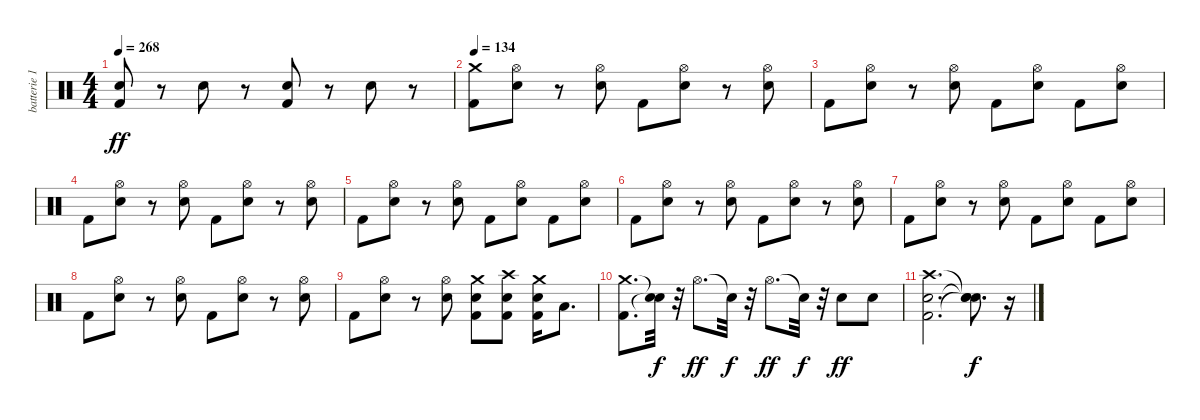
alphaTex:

\track ("batterie 1" "batterie 1") {instrument percussion}
\staff {score}
\articulation defaults
\ts (4 4)
\tempo 268
\clef neutral
\ks c
("Kick (hit) 2" "Electric Snare (hit)").8{dy ff volume 12} r.8 "Electric Snare (hit)".8{volume 14} r.8 ("Kick (hit) 2" "Electric Snare (hit)").8{volume 16} r.8 "Electric Snare (hit)".8 r.8 |
\tempo 134
("Kick (hit) 2" "Crash medium (hit)").8 ("Electric Snare (hit)" "Hi-Hat (open)").8 r.8 ("Electric Snare (hit)" "Hi-Hat (open)").8 "Kick (hit) 2".8 ("Electric Snare (hit)" "Hi-Hat (open)").8 r.8 ("Electric Snare (hit)" "Hi-Hat (open)").8 |
"Kick (hit) 2".8 ("Electric Snare (hit)" "Hi-Hat (open)").8 r.8 ("Electric Snare (hit)" "Hi-Hat (open)").8 "Kick (hit) 2".8 ("Electric Snare (hit)" "Hi-Hat (open)").8 "Kick (hit) 2".8 ("Electric Snare (hit)" "Hi-Hat (open)").8 |
"Kick (hit) 2".8 ("Electric Snare (hit)" "Hi-Hat (open)").8 r.8 ("Electric Snare (hit)" "Hi-Hat (open)").8 "Kick (hit) 2".8 ("Electric Snare (hit)" "Hi-Hat (open)").8 r.8 ("Electric Snare (hit)" "Hi-Hat (open)").8 |
"Kick (hit) 2".8 ("Electric Snare (hit)" "Hi-Hat (open)").8 r.8 ("Electric Snare (hit)" "Hi-Hat (open)").8 "Kick (hit) 2".8 ("Electric Snare (hit)" "Hi-Hat (open)").8 "Kick (hit) 2".8 ("Electric Snare (hit)" "Hi-Hat (open)").8 |
"Kick (hit) 2".8 ("Electric Snare (hit)" "Hi-Hat (open)").8 r.8 ("Electric Snare (hit)" "Hi-Hat (open)").8 "Kick (hit) 2".8 ("Electric Snare (hit)" "Hi-Hat (open)").8 r.8 ("Electric Snare (hit)" "Hi-Hat (open)").8 |
"Kick (hit) 2".8 ("Electric Snare (hit)" "Hi-Hat (open)").8 r.8 ("Electric Snare (hit)" "Hi-Hat (open)").8 "Kick (hit) 2".8 ("Electric Snare (hit)" "Hi-Hat (open)").8 "Kick (hit) 2".8 ("Electric Snare (hit)" "Hi-Hat (open)").8 |
"Kick (hit) 2".8 ("Electric Snare (hit)" "Hi-Hat (open)").8 r.8 ("Electric Snare (hit)" "Hi-Hat (open)").8 "Kick (hit) 2".8 ("Electric Snare (hit)" "Hi-Hat (open)").8 r.8 ("Electric Snare (hit)" "Hi-Hat (open)").8 |
"Kick (hit) 2".8 ("Electric Snare (hit)" "Hi-Hat (open)").8 r.8 ("Electric Snare (hit)" "Hi-Hat (open)").8 ("Kick (hit) 2" "Electric Snare (hit)" "Crash medium (hit)").8 ("Kick (hit) 2" "Electric Snare (hit)" "Crash high (hit)").8 ("Kick (hit) 2" "Electric Snare (hit)" "Crash medium (hit)").16 "Low Floor Tom (hit)".8{d} |
("Kick (hit) 2" "Crash medium (hit)").8{d} ("Snare (hit)"{t} "Snare (hit)"{t}).32{dy f} r.32 "Hi-Hat (open)".8{d dy ff} "Snare (hit)"{t}.32{dy f} r.32 "Hi-Hat (open)".8{d dy ff} "Snare (hit)"{t}.32{dy f} r.32 "Electric Snare (hit)".8{dy ff} "Electric Snare (hit)".8 |
("Kick (hit) 2" "Electric Snare (hit)" "Crash high (hit)").2{d} ("Snare (hit)"{t} "Snare (hit)"{t} "Snare (hit)"{t}).8{d dy f} r.16
